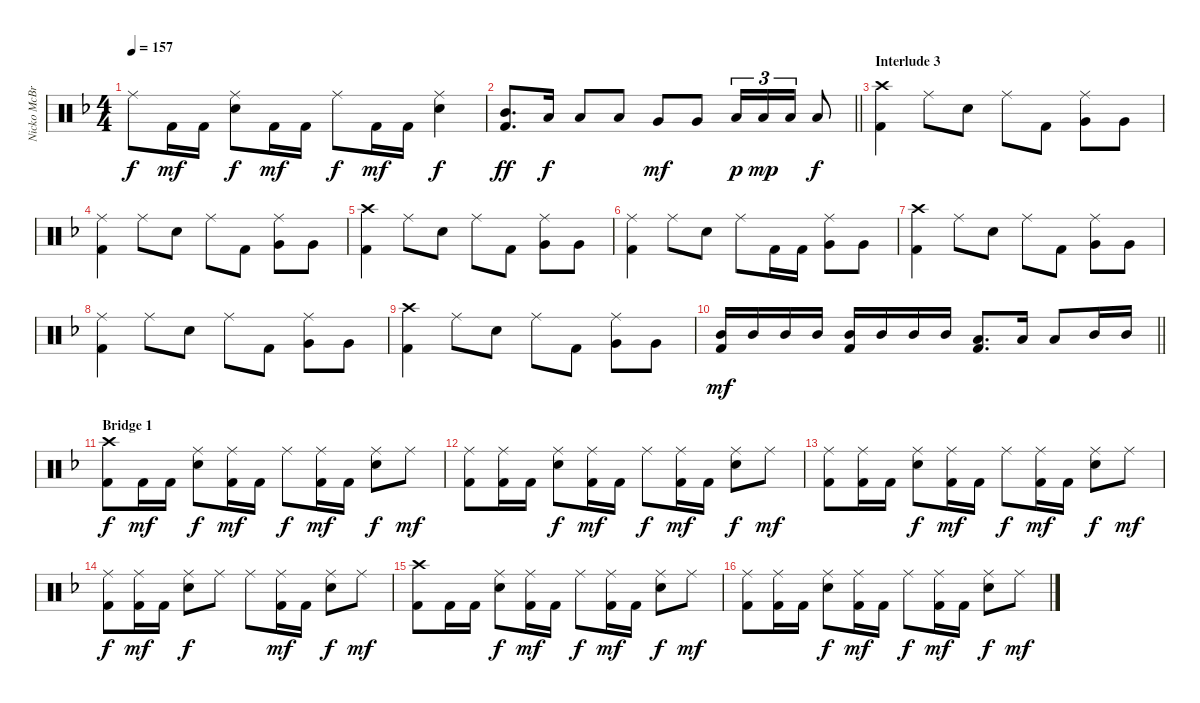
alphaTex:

\track ("Nicko McBrain" "Nicko McBr") {instrument percussion}
\staff {score}
\articulation defaults
\ts (4 4)
\tempo 157
\clef neutral
\ks f "Ride (middle)".8{dy f} "Kick (hit) 2".16{dy mf} "Kick (hit) 2".16
("Ride (middle)" "Electric Snare (hit)").8{dy f} "Kick (hit) 2".16{dy mf} "Kick (hit) 2".16 "Ride (middle)".8{dy f} "Kick (hit) 2".16{dy mf} "Kick (hit) 2".16 ("Ride (middle)" "Electric Snare (hit)").4{dy f} |
\barLineRight lightlight
("Mid Tom (hit)" "Kick (hit) 2").8{d dy ff} "Low Tom (hit)".16{dy f} "Low Tom (hit)".8 "Low Tom (hit)".8 "Very Low Tom (hit)".8{dy mf} "Very Low Tom (hit)".8 "Low Tom (hit)".16{tu (3 2) dy p} "Low Tom (hit)".16{tu (3 2) dy mp} "Low Tom (hit)".16{tu (3 2)} "Low Tom (hit)".8{dy f} |
\section ("" "Interlude 3")
("Crash high (hit)" "Kick (hit) 2").4 "Ride (middle)".8 "Electric Snare (hit)".8 "Ride (middle)".8 "Kick (hit) 2".8 ("Ride (middle)" "Very Low Tom (hit)").8 "Very Low Tom (hit)".8 |
("Ride (middle)" "Kick (hit) 2").4 "Ride (middle)".8 "Electric Snare (hit)".8 "Ride (middle)".8 "Kick (hit) 2".8 ("Ride (middle)" "Very Low Tom (hit)").8 "Very Low Tom (hit)".8 |
("Crash high (hit)" "Kick (hit) 2").4 "Ride (middle)".8 "Electric Snare (hit)".8 "Ride (middle)".8 "Kick (hit) 2".8 ("Ride (middle)" "Very Low Tom (hit)").8 "Very Low Tom (hit)".8 |
("Ride (middle)" "Kick (hit) 2").4 "Ride (middle)".8 "Electric Snare (hit)".8 "Ride (middle)".8 "Kick (hit) 2".16 "Kick (hit) 2".16 ("Ride (middle)" "Very Low Tom (hit)").8 "Very Low Tom (hit)".8 |
("Crash high (hit)" "Kick (hit) 2").4 "Ride (middle)".8 "Electric Snare (hit)".8 "Ride (middle)".8 "Kick (hit) 2".8 ("Ride (middle)" "Very Low Tom (hit)").8 "Very Low Tom (hit)".8 |
("Ride (middle)" "Kick (hit) 2").4 "Ride (middle)".8 "Electric Snare (hit)".8 "Ride (middle)".8 "Kick (hit) 2".8 ("Ride (middle)" "Very Low Tom (hit)").8 "Very Low Tom (hit)".8 |
("Crash high (hit)" "Kick (hit) 2").4 "Ride (middle)".8 "Electric Snare (hit)".8 "Ride (middle)".8 "Kick (hit) 2".8 ("Ride (middle)" "Very Low Tom (hit)").8 "Very Low Tom (hit)".8 |
\barLineRight lightlight
("Mid Tom (hit)" "Kick (hit) 2").16{dy mf} "Mid Tom (hit)".16 "Mid Tom (hit)".16 "Mid Tom (hit)".16 ("Mid Tom (hit)" "Kick (hit) 2").16 "Mid Tom (hit)".16 "Mid Tom (hit)".16 "Mid Tom (hit)".16 ("Low Tom (hit)" "Kick (hit) 2").8{d} "Low Tom (hit)".16 "Low Tom (hit)".8 "Mid Tom (hit)".16 "Mid Tom (hit)".16 |
\section ("" "Bridge 1")
("Crash high (hit)" "Kick (hit) 2").8{dy f} "Kick (hit) 2".16{dy mf} "Kick (hit) 2".16 ("Ride (middle)" "Electric Snare (hit)").8{dy f} ("Ride (middle)" "Kick (hit) 2").16{dy mf} "Kick (hit) 2".16 "Ride (middle)".8{dy f} ("Ride (middle)" "Kick (hit) 2").16{dy mf} "Kick (hit) 2".16 ("Ride (middle)" "Electric Snare (hit)").8{dy f} "Ride (middle)".8{dy mf} |
("Ride (middle)" "Kick (hit) 2").8 ("Ride (middle)" "Kick (hit) 2").16 "Kick (hit) 2".16 ("Ride (middle)" "Electric Snare (hit)").8{dy f} ("Ride (middle)" "Kick (hit) 2").16{dy mf} "Kick (hit) 2".16 "Ride (middle)".8{dy f} ("Ride (middle)" "Kick (hit) 2").16{dy mf} "Kick (hit) 2".16 ("Ride (middle)" "Electric Snare (hit)").8{dy f} "Ride (middle)".8{dy mf} |
("Ride (middle)" "Kick (hit) 2").8 ("Ride (middle)" "Kick (hit) 2").16 "Kick (hit) 2".16 ("Ride (middle)" "Electric Snare (hit)").8{dy f} ("Ride (middle)" "Kick (hit) 2").16{dy mf} "Kick (hit) 2".16 "Ride (middle)".8{dy f} ("Ride (middle)" "Kick (hit) 2").16{dy mf} "Kick (hit) 2".16 ("Ride (middle)" "Electric Snare (hit)").8{dy f} "Ride (middle)".8{dy mf} |
("Ride (middle)" "Kick (hit) 2").8{dy f} ("Ride (middle)" "Kick (hit) 2").16{dy mf} "Kick (hit) 2".16 ("Ride (middle)" "Electric Snare (hit)").8{dy f} "Ride (middle)".8 "Ride (middle)".8 ("Ride (middle)" "Kick (hit) 2").16{dy mf} "Kick (hit) 2".16 ("Ride (middle)" "Electric Snare (hit)").8{dy f} "Ride (middle)".8{dy mf} |
("Crash high (hit)" "Kick (hit) 2").8 "Kick (hit) 2".16 "Kick (hit) 2".16 ("Ride (middle)" "Electric Snare (hit)").8{dy f} ("Ride (middle)" "Kick (hit) 2").16{dy mf} "Kick (hit) 2".16 "Ride (middle)".8{dy f} ("Ride (middle)" "Kick (hit) 2").16{dy mf} "Kick (hit) 2".16 ("Ride (middle)" "Electric Snare (hit)").8{dy f} "Ride (middle)".8{dy mf} |
("Ride (middle)" "Kick (hit) 2").8 ("Ride (middle)" "Kick (hit) 2").16 "Kick (hit) 2".16 ("Ride (middle)" "Electric Snare (hit)").8{dy f} ("Ride (middle)" "Kick (hit) 2").16{dy mf} "Kick (hit) 2".16 "Ride (middle)".8{dy f} ("Ride (middle)" "Kick (hit) 2").16{dy mf} "Kick (hit) 2".16 ("Ride (middle)" "Electric Snare (hit)").8{dy f} "Ride (middle)".8{dy mf}
